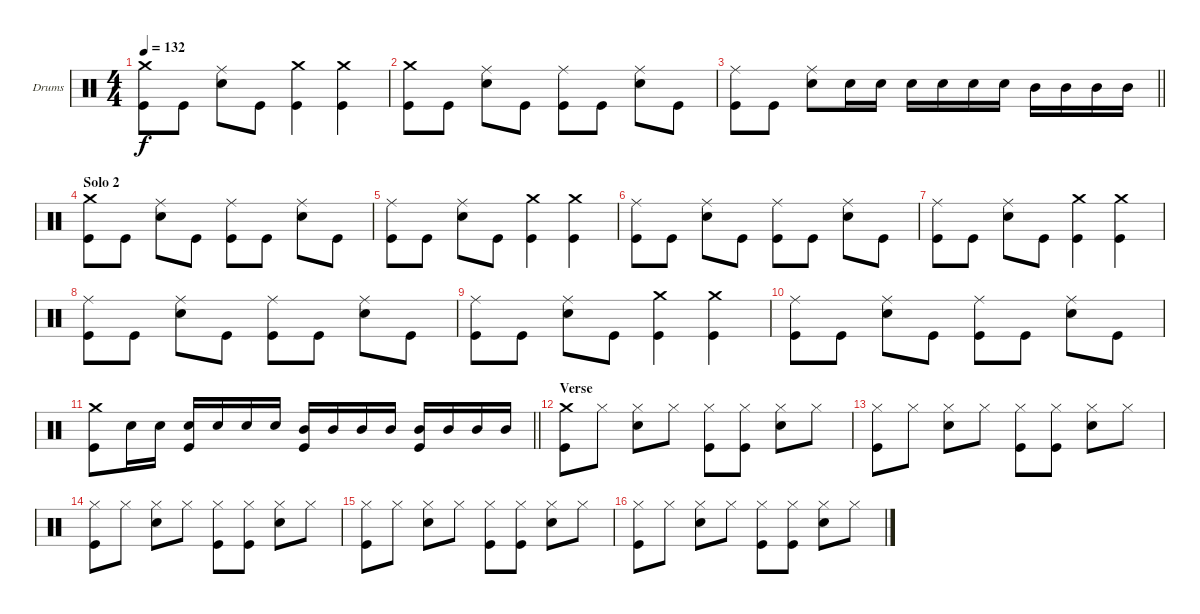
\bracketExtendMode groupsimilarinstruments
\firstSystemTrackNameOrientation horizontal
\otherSystemsTrackNameOrientation horizontal
\track ("Drums" "Drums") {instrument percussion}
\staff {score}
\articulation defaults
\ts (4 4)
\tempo 132
\clef neutral
\ks c
("Crash medium (hit)" "Kick (hit)").8{dy f} "Kick (hit)".8 ("Ride (middle)" "Snare (hit) 2").8 "Kick (hit)".8 ("Crash medium (hit)" "Kick (hit)").4 ("Crash medium (hit)" "Kick (hit)").4 |
("Crash medium (hit)" "Kick (hit)").8 "Kick (hit)".8 ("Ride (middle)" "Snare (hit) 2").8 "Kick (hit)".8 ("Ride (middle)" "Kick (hit)").8 "Kick (hit)".8 ("Ride (middle)" "Snare (hit) 2").8 "Kick (hit)".8 |
\barLineRight lightlight
("Ride (middle)" "Kick (hit)").8 "Kick (hit)".8 ("Ride (middle)" "Snare (hit) 2").8 "Snare (hit) 2".16 "Snare (hit) 2".16 "Snare (hit) 2".16 "Snare (hit) 2".16 "Snare (hit) 2".16 "Snare (hit) 2".16 "Mid Tom (hit)".16 "Mid Tom (hit)".16 "Mid Tom (hit)".16 "Mid Tom (hit)".16 |
\section ("" "Solo 2")
("Crash medium (hit)" "Kick (hit)").8 "Kick (hit)".8 ("Ride (middle)" "Snare (hit) 2").8 "Kick (hit)".8 ("Ride (middle)" "Kick (hit)").8 "Kick (hit)".8 ("Ride (middle)" "Snare (hit) 2").8 "Kick (hit)".8 |
("Ride (middle)" "Kick (hit)").8 "Kick (hit)".8 ("Ride (middle)" "Snare (hit) 2").8 "Kick (hit)".8 ("Crash medium (hit)" "Kick (hit)").4 ("Crash medium (hit)" "Kick (hit)").4 |
("Ride (middle)" "Kick (hit)").8 "Kick (hit)".8 ("Ride (middle)" "Snare (hit) 2").8 "Kick (hit)".8 ("Ride (middle)" "Kick (hit)").8 "Kick (hit)".8 ("Ride (middle)" "Snare (hit) 2").8 "Kick (hit)".8 |
("Ride (middle)" "Kick (hit)").8 "Kick (hit)".8 ("Ride (middle)" "Snare (hit) 2").8 "Kick (hit)".8 ("Crash medium (hit)" "Kick (hit)").4 ("Crash medium (hit)" "Kick (hit)").4 |
("Ride (middle)" "Kick (hit)").8 "Kick (hit)".8 ("Ride (middle)" "Snare (hit) 2").8 "Kick (hit)".8 ("Ride (middle)" "Kick (hit)").8 "Kick (hit)".8 ("Ride (middle)" "Snare (hit) 2").8 "Kick (hit)".8 |
("Ride (middle)" "Kick (hit)").8 "Kick (hit)".8 ("Ride (middle)" "Snare (hit) 2").8 "Kick (hit)".8 ("Crash medium (hit)" "Kick (hit)").4 ("Crash medium (hit)" "Kick (hit)").4 |
("Ride (middle)" "Kick (hit)").8 "Kick (hit)".8 ("Ride (middle)" "Snare (hit) 2").8 "Kick (hit)".8 ("Ride (middle)" "Kick (hit)").8 "Kick (hit)".8 ("Ride (middle)" "Snare (hit) 2").8 "Kick (hit)".8 |
\barLineRight lightlight
("Crash medium (hit)" "Kick (hit)").8 "Snare (hit) 2".16 "Snare (hit) 2".16 ("Snare (hit) 2" "Kick (hit)").16 "Snare (hit) 2".16 "Snare (hit) 2".16 "Snare (hit) 2".16 ("Mid Tom (hit)" "Kick (hit)").16 "Mid Tom (hit)".16 "Mid Tom (hit)".16 "Mid Tom (hit)".16 ("Mid Tom (hit)" "Kick (hit)").16 "Mid Tom (hit)".16 "Mid Tom (hit)".16 "Mid Tom (hit)".16 |
\section ("" "Verse")
("Crash medium (hit)" "Kick (hit)").8 "Hi-Hat (closed)".8 ("Hi-Hat (closed)" "Snare (hit) 2").8 "Hi-Hat (closed)".8 ("Hi-Hat (closed)" "Kick (hit)").8 ("Hi-Hat (closed)" "Kick (hit)").8 ("Hi-Hat (closed)" "Snare (hit) 2").8 "Hi-Hat (closed)".8 |
("Hi-Hat (closed)" "Kick (hit)").8 "Hi-Hat (closed)".8 ("Hi-Hat (closed)" "Snare (hit) 2").8 "Hi-Hat (closed)".8 ("Hi-Hat (closed)" "Kick (hit)").8 ("Hi-Hat (closed)" "Kick (hit)").8 ("Hi-Hat (closed)" "Snare (hit) 2").8 "Hi-Hat (closed)".8 |
("Hi-Hat (closed)" "Kick (hit)").8 "Hi-Hat (closed)".8 ("Hi-Hat (closed)" "Snare (hit) 2").8 "Hi-Hat (closed)".8 ("Hi-Hat (closed)" "Kick (hit)").8 ("Hi-Hat (closed)" "Kick (hit)").8 ("Hi-Hat (closed)" "Snare (hit) 2").8 "Hi-Hat (closed)".8 |
("Hi-Hat (closed)" "Kick (hit)").8 "Hi-Hat (closed)".8 ("Hi-Hat (closed)" "Snare (hit) 2").8 "Hi-Hat (closed)".8 ("Hi-Hat (closed)" "Kick (hit)").8 ("Hi-Hat (closed)" "Kick (hit)").8 ("Hi-Hat (closed)" "Snare (hit) 2").8 "Hi-Hat (closed)".8 |
("Hi-Hat (closed)" "Kick (hit)").8 "Hi-Hat (closed)".8 ("Hi-Hat (closed)" "Snare (hit) 2").8 "Hi-Hat (closed)".8 ("Hi-Hat (closed)" "Kick (hit)").8 ("Hi-Hat (closed)" "Kick (hit)").8 ("Hi-Hat (closed)" "Snare (hit) 2").8 "Hi-Hat (closed)".8
